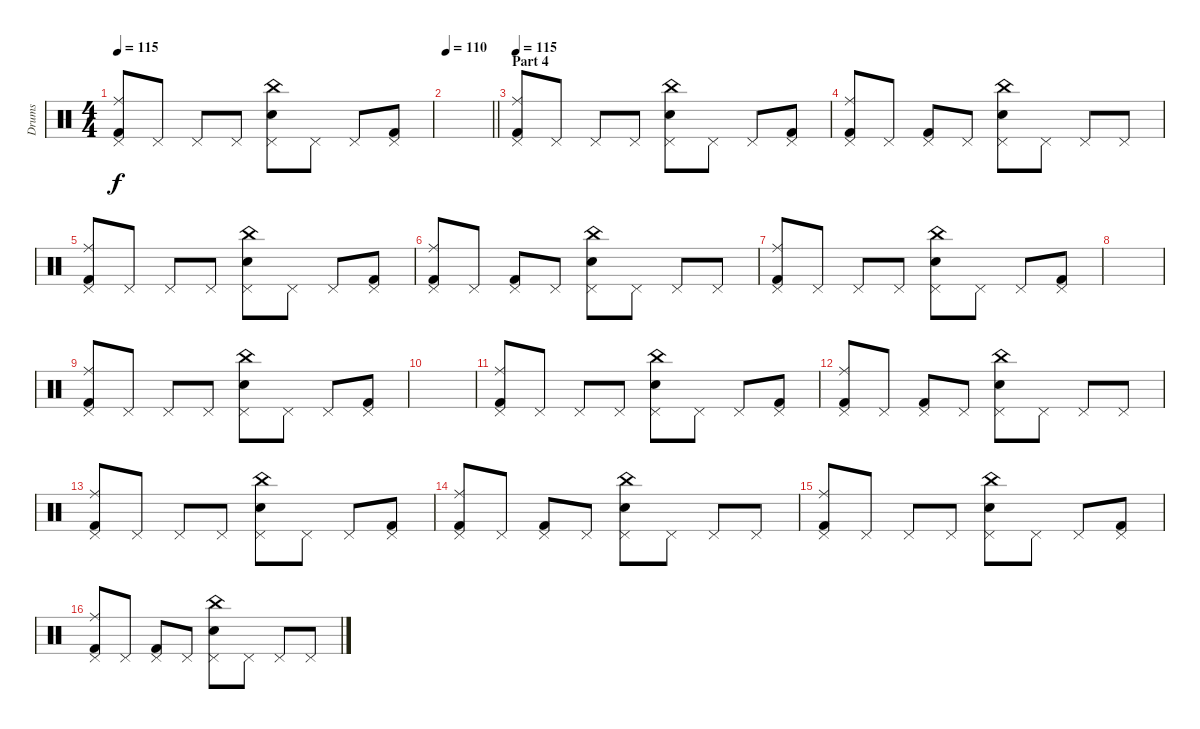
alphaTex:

\track ("Drums" "Drums") {instrument percussion}
\staff {score}
\articulation defaults
\ts (4 4)
\tempo 115
\clef neutral
\ks c
("Pedal Hi-Hat (hit)" "Ride (middle)" "Kick (hit) 2").8{dy f} "Pedal Hi-Hat (hit)".8 "Pedal Hi-Hat (hit)".8 "Pedal Hi-Hat (hit)".8 ("Pedal Hi-Hat (hit)" "Electric Snare (hit)" "China (hit)").8 "Pedal Hi-Hat (hit)".8 "Pedal Hi-Hat (hit)".8 ("Pedal Hi-Hat (hit)" "Kick (hit) 2").8 |
\tempo 110
\barLineRight lightlight
|
\section ("" "Part 4")
\tempo 115
("Pedal Hi-Hat (hit)" "Ride (middle)" "Kick (hit) 2").8 "Pedal Hi-Hat (hit)".8 "Pedal Hi-Hat (hit)".8 "Pedal Hi-Hat (hit)".8 ("Pedal Hi-Hat (hit)" "Electric Snare (hit)" "China (hit)").8 "Pedal Hi-Hat (hit)".8 "Pedal Hi-Hat (hit)".8 ("Pedal Hi-Hat (hit)" "Kick (hit) 2").8 |
("Pedal Hi-Hat (hit)" "Ride (middle)" "Kick (hit) 2").8 "Pedal Hi-Hat (hit)".8 ("Pedal Hi-Hat (hit)" "Kick (hit) 2").8 "Pedal Hi-Hat (hit)".8 ("Pedal Hi-Hat (hit)" "Electric Snare (hit)" "China (hit)").8 "Pedal Hi-Hat (hit)".8 "Pedal Hi-Hat (hit)".8 "Pedal Hi-Hat (hit)".8 |
("Pedal Hi-Hat (hit)" "Ride (middle)" "Kick (hit) 2").8 "Pedal Hi-Hat (hit)".8 "Pedal Hi-Hat (hit)".8 "Pedal Hi-Hat (hit)".8 ("Pedal Hi-Hat (hit)" "Electric Snare (hit)" "China (hit)").8 "Pedal Hi-Hat (hit)".8 "Pedal Hi-Hat (hit)".8 ("Pedal Hi-Hat (hit)" "Kick (hit) 2").8 |
("Pedal Hi-Hat (hit)" "Ride (middle)" "Kick (hit) 2").8 "Pedal Hi-Hat (hit)".8 ("Pedal Hi-Hat (hit)" "Kick (hit) 2").8 "Pedal Hi-Hat (hit)".8 ("Pedal Hi-Hat (hit)" "Electric Snare (hit)" "China (hit)").8 "Pedal Hi-Hat (hit)".8 "Pedal Hi-Hat (hit)".8 "Pedal Hi-Hat (hit)".8 |
("Pedal Hi-Hat (hit)" "Ride (middle)" "Kick (hit) 2").8 "Pedal Hi-Hat (hit)".8 "Pedal Hi-Hat (hit)".8 "Pedal Hi-Hat (hit)".8 ("Pedal Hi-Hat (hit)" "Electric Snare (hit)" "China (hit)").8 "Pedal Hi-Hat (hit)".8 "Pedal Hi-Hat (hit)".8 ("Pedal Hi-Hat (hit)" "Kick (hit) 2").8 |
|
("Pedal Hi-Hat (hit)" "Ride (middle)" "Kick (hit) 2").8 "Pedal Hi-Hat (hit)".8 "Pedal Hi-Hat (hit)".8 "Pedal Hi-Hat (hit)".8 ("Pedal Hi-Hat (hit)" "Electric Snare (hit)" "China (hit)").8 "Pedal Hi-Hat (hit)".8 "Pedal Hi-Hat (hit)".8 ("Pedal Hi-Hat (hit)" "Kick (hit) 2").8 |
|
("Pedal Hi-Hat (hit)" "Ride (middle)" "Kick (hit) 2").8 "Pedal Hi-Hat (hit)".8 "Pedal Hi-Hat (hit)".8 "Pedal Hi-Hat (hit)".8 ("Pedal Hi-Hat (hit)" "Electric Snare (hit)" "China (hit)").8 "Pedal Hi-Hat (hit)".8 "Pedal Hi-Hat (hit)".8 ("Pedal Hi-Hat (hit)" "Kick (hit) 2").8 |
("Pedal Hi-Hat (hit)" "Ride (middle)" "Kick (hit) 2").8 "Pedal Hi-Hat (hit)".8 ("Pedal Hi-Hat (hit)" "Kick (hit) 2").8 "Pedal Hi-Hat (hit)".8 ("Pedal Hi-Hat (hit)" "Electric Snare (hit)" "China (hit)").8 "Pedal Hi-Hat (hit)".8 "Pedal Hi-Hat (hit)".8 "Pedal Hi-Hat (hit)".8 |
("Pedal Hi-Hat (hit)" "Ride (middle)" "Kick (hit) 2").8 "Pedal Hi-Hat (hit)".8 "Pedal Hi-Hat (hit)".8 "Pedal Hi-Hat (hit)".8 ("Pedal Hi-Hat (hit)" "Electric Snare (hit)" "China (hit)").8 "Pedal Hi-Hat (hit)".8 "Pedal Hi-Hat (hit)".8 ("Pedal Hi-Hat (hit)" "Kick (hit) 2").8 |
("Pedal Hi-Hat (hit)" "Ride (middle)" "Kick (hit) 2").8 "Pedal Hi-Hat (hit)".8 ("Pedal Hi-Hat (hit)" "Kick (hit) 2").8 "Pedal Hi-Hat (hit)".8 ("Pedal Hi-Hat (hit)" "Electric Snare (hit)" "China (hit)").8 "Pedal Hi-Hat (hit)".8 "Pedal Hi-Hat (hit)".8 "Pedal Hi-Hat (hit)".8 |
("Pedal Hi-Hat (hit)" "Ride (middle)" "Kick (hit) 2").8 "Pedal Hi-Hat (hit)".8 "Pedal Hi-Hat (hit)".8 "Pedal Hi-Hat (hit)".8 ("Pedal Hi-Hat (hit)" "Electric Snare (hit)" "China (hit)").8 "Pedal Hi-Hat (hit)".8 "Pedal Hi-Hat (hit)".8 ("Pedal Hi-Hat (hit)" "Kick (hit) 2").8 |
("Pedal Hi-Hat (hit)" "Ride (middle)" "Kick (hit) 2").8 "Pedal Hi-Hat (hit)".8 ("Pedal Hi-Hat (hit)" "Kick (hit) 2").8 "Pedal Hi-Hat (hit)".8 ("Pedal Hi-Hat (hit)" "Electric Snare (hit)" "China (hit)").8 "Pedal Hi-Hat (hit)".8 "Pedal Hi-Hat (hit)".8 "Pedal Hi-Hat (hit)".8
